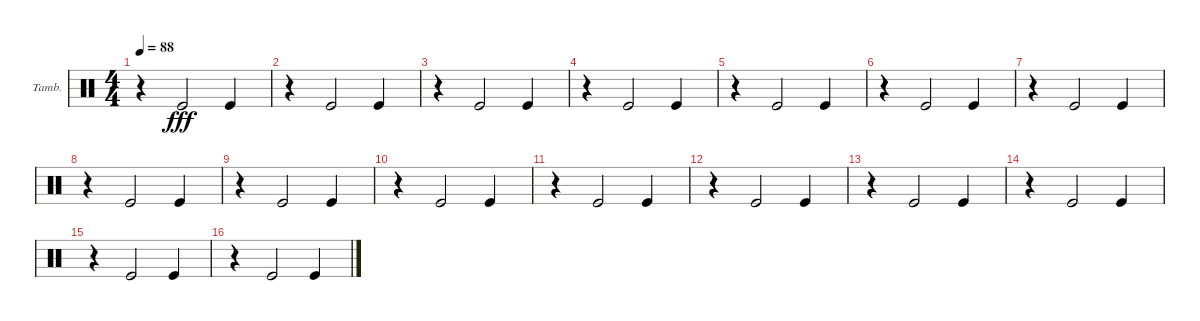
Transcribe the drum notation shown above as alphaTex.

\defaultSystemsLayout 4
\bracketExtendMode groupsimilarinstruments
\firstSystemTrackNameOrientation horizontal
\otherSystemsTrackNameOrientation horizontal
\track ("Helders" "Tamb.") {instrument percussion}
\staff {score}
\articulation defaults
\ts (4 4)
\tempo 88
\clef neutral
\scale
0.333333
\ks c
r.4{dy fff} "Kick (hit)".2 "Kick (hit)".4 |
\scale
0.333333 r.4 "Kick (hit)".2 "Kick (hit)".4 |
\scale
0.333333 r.4 "Kick (hit)".2 "Kick (hit)".4 |
\scale
0.333333 r.4 "Kick (hit)".2 "Kick (hit)".4 |
\scale
0.333333 r.4 "Kick (hit)".2 "Kick (hit)".4 |
\scale
0.333333 r.4 "Kick (hit)".2 "Kick (hit)".4 |
\scale
0.333333 r.4 "Kick (hit)".2 "Kick (hit)".4 |
\scale
0.333333 r.4 "Kick (hit)".2 "Kick (hit)".4 |
\scale
0.333333 r.4 "Kick (hit)".2 "Kick (hit)".4 |
\scale
0.333333 r.4 "Kick (hit)".2 "Kick (hit)".4 |
r.4 "Kick (hit)".2 "Kick (hit)".4 |
r.4 "Kick (hit)".2 "Kick (hit)".4 |
r.4 "Kick (hit)".2 "Kick (hit)".4 |
r.4 "Kick (hit)".2 "Kick (hit)".4 |
r.4 "Kick (hit)".2 "Kick (hit)".4 |
r.4 "Kick (hit)".2 "Kick (hit)".4
